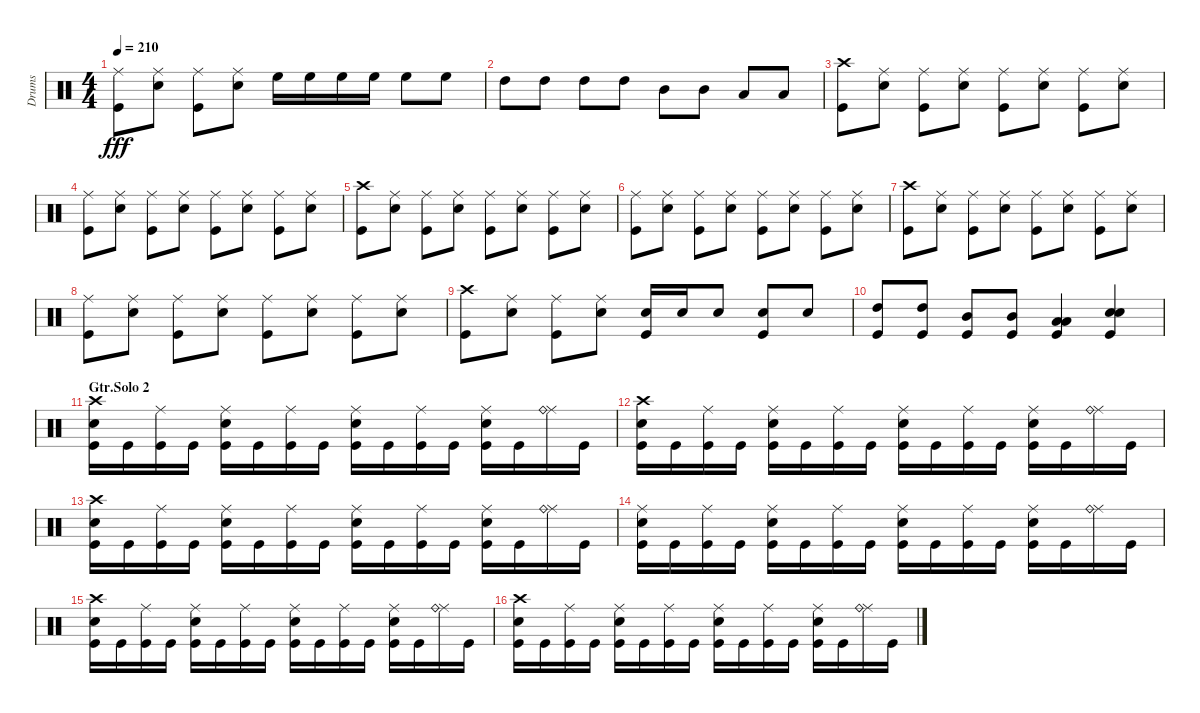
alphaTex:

\track ("Drums" "Drums") {instrument percussion}
\staff {score}
\articulation defaults
\ts (4 4)
\tempo 210
\clef neutral
\ks c
("Ride (middle)" "Kick (hit)").8{dy fff} ("Ride (middle)" "Snare (hit) 2").8 ("Ride (middle)" "Kick (hit)").8 ("Ride (middle)" "Snare (hit) 2").8 "High Floor Tom (hit)".16 "High Floor Tom (hit)".16 "High Floor Tom (hit)".16 "High Floor Tom (hit)".16 "High Floor Tom (hit)".8 "High Floor Tom (hit)".8 |
"High Tom (hit)".8 "High Tom (hit)".8 "High Tom (hit)".8 "High Tom (hit)".8 "Mid Tom (hit)".8 "Mid Tom (hit)".8 "Low Tom (hit)".8 "Low Tom (hit)".8 |
("Crash high (hit)" "Kick (hit)").8 ("Ride (middle)" "Snare (hit) 2").8 ("Ride (middle)" "Kick (hit)").8 ("Ride (middle)" "Snare (hit) 2").8 ("Ride (middle)" "Kick (hit)").8 ("Ride (middle)" "Snare (hit) 2").8 ("Ride (middle)" "Kick (hit)").8 ("Ride (middle)" "Snare (hit) 2").8 |
("Ride (middle)" "Kick (hit)").8 ("Ride (middle)" "Snare (hit) 2").8 ("Ride (middle)" "Kick (hit)").8 ("Ride (middle)" "Snare (hit) 2").8 ("Ride (middle)" "Kick (hit)").8 ("Ride (middle)" "Snare (hit) 2").8 ("Ride (middle)" "Kick (hit)").8 ("Ride (middle)" "Snare (hit) 2").8 |
("Crash high (hit)" "Kick (hit)").8 ("Ride (middle)" "Snare (hit) 2").8 ("Ride (middle)" "Kick (hit)").8 ("Ride (middle)" "Snare (hit) 2").8 ("Ride (middle)" "Kick (hit)").8 ("Ride (middle)" "Snare (hit) 2").8 ("Ride (middle)" "Kick (hit)").8 ("Ride (middle)" "Snare (hit) 2").8 |
("Ride (middle)" "Kick (hit)").8 ("Ride (middle)" "Snare (hit) 2").8 ("Ride (middle)" "Kick (hit)").8 ("Ride (middle)" "Snare (hit) 2").8 ("Ride (middle)" "Kick (hit)").8 ("Ride (middle)" "Snare (hit) 2").8 ("Ride (middle)" "Kick (hit)").8 ("Ride (middle)" "Snare (hit) 2").8 |
("Crash high (hit)" "Kick (hit)").8 ("Ride (middle)" "Snare (hit) 2").8 ("Ride (middle)" "Kick (hit)").8 ("Ride (middle)" "Snare (hit) 2").8 ("Ride (middle)" "Kick (hit)").8 ("Ride (middle)" "Snare (hit) 2").8 ("Ride (middle)" "Kick (hit)").8 ("Ride (middle)" "Snare (hit) 2").8 |
("Ride (middle)" "Kick (hit)").8 ("Ride (middle)" "Snare (hit) 2").8 ("Ride (middle)" "Kick (hit)").8 ("Ride (middle)" "Snare (hit) 2").8 ("Ride (middle)" "Kick (hit)").8 ("Ride (middle)" "Snare (hit) 2").8 ("Ride (middle)" "Kick (hit)").8 ("Ride (middle)" "Snare (hit) 2").8 |
("Crash high (hit)" "Kick (hit)").8 ("Ride (middle)" "Snare (hit) 2").8 ("Ride (middle)" "Kick (hit)").8 ("Ride (middle)" "Snare (hit) 2").8 ("Snare (hit) 2" "Kick (hit)").16 "Snare (hit) 2".16 "Snare (hit) 2".8 ("Snare (hit) 2" "Kick (hit)").8 "Snare (hit) 2".8 |
("High Tom (hit)" "Kick (hit)").8 ("High Tom (hit)" "Kick (hit)").8 ("Mid Tom (hit)" "Kick (hit)").8 ("Mid Tom (hit)" "Kick (hit)").8 ("Low Tom (hit)" "Low Tom (hit)" "Kick (hit)").4 ("Snare (hit) 2" "Snare (hit) 2" "Kick (hit)").4 |
\section ("" "Gtr.Solo 2")
("Snare (hit) 2" "Crash high (hit)" "Kick (hit)").16 "Kick (hit)".16 ("Ride (middle)" "Kick (hit)").16 "Kick (hit)".16 ("Ride (middle)" "Snare (hit) 2" "Kick (hit)").16 "Kick (hit)".16 ("Ride (middle)" "Kick (hit)").16 "Kick (hit)".16 ("Ride (middle)" "Snare (hit) 2" "Kick (hit)").16 "Kick (hit)".16 ("Ride (middle)" "Kick (hit)").16 "Kick (hit)".16 ("Ride (middle)" "Snare (hit) 2" "Kick (hit)").16 "Kick (hit)".16 ("Ride (middle)" "Ride (bell)").16 "Kick (hit)".16 |
("Snare (hit) 2" "Crash high (hit)" "Kick (hit)").16 "Kick (hit)".16 ("Ride (middle)" "Kick (hit)").16 "Kick (hit)".16 ("Ride (middle)" "Snare (hit) 2" "Kick (hit)").16 "Kick (hit)".16 ("Ride (middle)" "Kick (hit)").16 "Kick (hit)".16 ("Ride (middle)" "Snare (hit) 2" "Kick (hit)").16 "Kick (hit)".16 ("Ride (middle)" "Kick (hit)").16 "Kick (hit)".16 ("Ride (middle)" "Snare (hit) 2" "Kick (hit)").16 "Kick (hit)".16 ("Ride (middle)" "Ride (bell)").16 "Kick (hit)".16 |
("Snare (hit) 2" "Crash high (hit)" "Kick (hit)").16 "Kick (hit)".16 ("Ride (middle)" "Kick (hit)").16 "Kick (hit)".16 ("Ride (middle)" "Snare (hit) 2" "Kick (hit)").16 "Kick (hit)".16 ("Ride (middle)" "Kick (hit)").16 "Kick (hit)".16 ("Ride (middle)" "Snare (hit) 2" "Kick (hit)").16 "Kick (hit)".16 ("Ride (middle)" "Kick (hit)").16 "Kick (hit)".16 ("Ride (middle)" "Snare (hit) 2" "Kick (hit)").16 "Kick (hit)".16 ("Ride (middle)" "Ride (bell)").16 "Kick (hit)".16 |
("Ride (middle)" "Snare (hit) 2" "Kick (hit)").16 "Kick (hit)".16 ("Ride (middle)" "Kick (hit)").16 "Kick (hit)".16 ("Ride (middle)" "Snare (hit) 2" "Kick (hit)").16 "Kick (hit)".16 ("Ride (middle)" "Kick (hit)").16 "Kick (hit)".16 ("Ride (middle)" "Snare (hit) 2" "Kick (hit)").16 "Kick (hit)".16 ("Ride (middle)" "Kick (hit)").16 "Kick (hit)".16 ("Ride (middle)" "Snare (hit) 2" "Kick (hit)").16 "Kick (hit)".16 ("Ride (middle)" "Ride (bell)").16 "Kick (hit)".16 |
("Snare (hit) 2" "Crash high (hit)" "Kick (hit)").16 "Kick (hit)".16 ("Ride (middle)" "Kick (hit)").16 "Kick (hit)".16 ("Ride (middle)" "Snare (hit) 2" "Kick (hit)").16 "Kick (hit)".16 ("Ride (middle)" "Kick (hit)").16 "Kick (hit)".16 ("Ride (middle)" "Snare (hit) 2" "Kick (hit)").16 "Kick (hit)".16 ("Ride (middle)" "Kick (hit)").16 "Kick (hit)".16 ("Ride (middle)" "Snare (hit) 2" "Kick (hit)").16 "Kick (hit)".16 ("Ride (middle)" "Ride (bell)").16 "Kick (hit)".16 |
("Snare (hit) 2" "Crash high (hit)" "Kick (hit)").16 "Kick (hit)".16 ("Ride (middle)" "Kick (hit)").16 "Kick (hit)".16 ("Ride (middle)" "Snare (hit) 2" "Kick (hit)").16 "Kick (hit)".16 ("Ride (middle)" "Kick (hit)").16 "Kick (hit)".16 ("Ride (middle)" "Snare (hit) 2" "Kick (hit)").16 "Kick (hit)".16 ("Ride (middle)" "Kick (hit)").16 "Kick (hit)".16 ("Ride (middle)" "Snare (hit) 2" "Kick (hit)").16 "Kick (hit)".16 ("Ride (middle)" "Ride (bell)").16 "Kick (hit)".16
